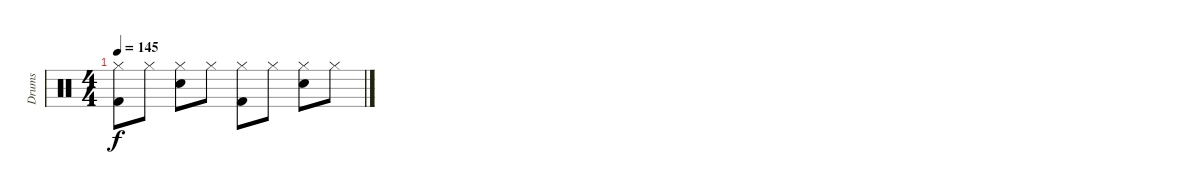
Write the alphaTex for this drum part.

\track ("Drums" "Drums") {instrument percussion}
\staff {score}
\articulation defaults
\ts (4 4)
\tempo 145
\clef neutral
\ks c
("Hi-Hat (closed)" "Kick (hit) 2").8{dy f} "Hi-Hat (closed)".8 ("Hi-Hat (closed)" "Snare (hit) 2").8 "Hi-Hat (closed)".8 ("Hi-Hat (closed)" "Kick (hit) 2").8 "Hi-Hat (closed)".8 ("Hi-Hat (closed)" "Snare (hit) 2").8 "Hi-Hat (closed)".8
